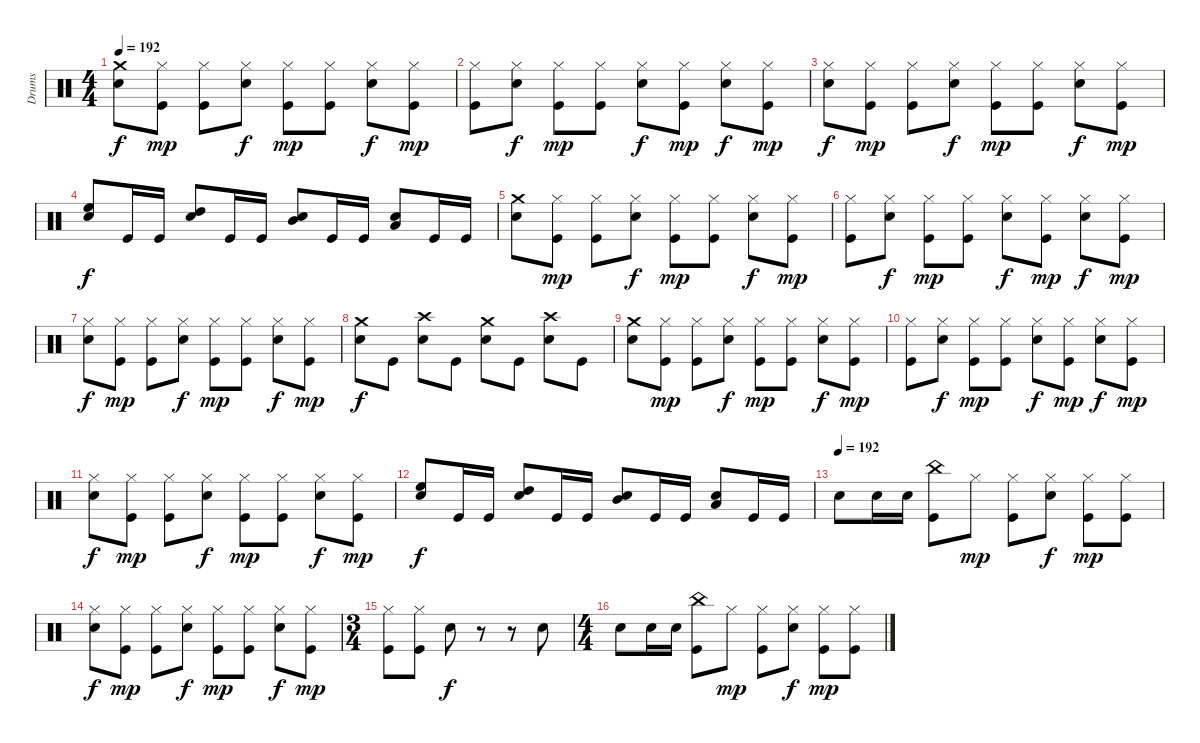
\track ("Drums" "Drums") {instrument percussion}
\staff {score}
\articulation defaults
\ts (4 4)
\tempo 192
\clef neutral
\ks c
("Crash medium (hit)" "Electric Snare (hit)").8{dy f} ("Hi-Hat (closed)" "Kick (hit)").8{dy mp} ("Hi-Hat (closed)" "Kick (hit)").8 ("Hi-Hat (closed)" "Electric Snare (hit)").8{dy f} ("Hi-Hat (closed)" "Kick (hit)").8{dy mp} ("Hi-Hat (closed)" "Kick (hit)").8 ("Hi-Hat (closed)" "Electric Snare (hit)").8{dy f} ("Hi-Hat (closed)" "Kick (hit)").8{dy mp} |
("Hi-Hat (closed)" "Kick (hit)").8 ("Hi-Hat (closed)" "Electric Snare (hit)").8{dy f} ("Hi-Hat (closed)" "Kick (hit)").8{dy mp} ("Hi-Hat (closed)" "Kick (hit)").8 ("Hi-Hat (closed)" "Electric Snare (hit)").8{dy f} ("Hi-Hat (closed)" "Kick (hit)").8{dy mp} ("Hi-Hat (closed)" "Electric Snare (hit)").8{dy f} ("Hi-Hat (closed)" "Kick (hit)").8{dy mp} |
("Hi-Hat (closed)" "Electric Snare (hit)").8{dy f} ("Hi-Hat (closed)" "Kick (hit)").8{dy mp} ("Hi-Hat (closed)" "Kick (hit)").8 ("Hi-Hat (closed)" "Electric Snare (hit)").8{dy f} ("Hi-Hat (closed)" "Kick (hit)").8{dy mp} ("Hi-Hat (closed)" "Kick (hit)").8 ("Hi-Hat (closed)" "Electric Snare (hit)").8{dy f} ("Hi-Hat (closed)" "Kick (hit)").8{dy mp} |
("High Floor Tom (hit)" "Electric Snare (hit)").8{dy f} "Kick (hit)".16 "Kick (hit)".16 ("High Tom (hit)" "Electric Snare (hit)").8 "Kick (hit)".16 "Kick (hit)".16 ("Electric Snare (hit)" "Mid Tom (hit)").8 "Kick (hit)".16 "Kick (hit)".16 ("Electric Snare (hit)" "Low Tom (hit)").8 "Kick (hit)".16 "Kick (hit)".16 |
("Crash medium (hit)" "Electric Snare (hit)").8 ("Hi-Hat (closed)" "Kick (hit)").8{dy mp} ("Hi-Hat (closed)" "Kick (hit)").8 ("Hi-Hat (closed)" "Electric Snare (hit)").8{dy f} ("Hi-Hat (closed)" "Kick (hit)").8{dy mp} ("Hi-Hat (closed)" "Kick (hit)").8 ("Hi-Hat (closed)" "Electric Snare (hit)").8{dy f} ("Hi-Hat (closed)" "Kick (hit)").8{dy mp} |
("Hi-Hat (closed)" "Kick (hit)").8 ("Hi-Hat (closed)" "Electric Snare (hit)").8{dy f} ("Hi-Hat (closed)" "Kick (hit)").8{dy mp} ("Hi-Hat (closed)" "Kick (hit)").8 ("Hi-Hat (closed)" "Electric Snare (hit)").8{dy f} ("Hi-Hat (closed)" "Kick (hit)").8{dy mp} ("Hi-Hat (closed)" "Electric Snare (hit)").8{dy f} ("Hi-Hat (closed)" "Kick (hit)").8{dy mp} |
("Hi-Hat (closed)" "Electric Snare (hit)").8{dy f} ("Hi-Hat (closed)" "Kick (hit)").8{dy mp} ("Hi-Hat (closed)" "Kick (hit)").8 ("Hi-Hat (closed)" "Electric Snare (hit)").8{dy f} ("Hi-Hat (closed)" "Kick (hit)").8{dy mp} ("Hi-Hat (closed)" "Kick (hit)").8 ("Hi-Hat (closed)" "Electric Snare (hit)").8{dy f} ("Hi-Hat (closed)" "Kick (hit)").8{dy mp} |
("Crash medium (hit)" "Electric Snare (hit)").8{dy f} "Kick (hit)".8 ("Crash high (hit)" "Electric Snare (hit)").8 "Kick (hit)".8 ("Crash medium (hit)" "Electric Snare (hit)").8 "Kick (hit)".8 ("Crash high (hit)" "Electric Snare (hit)").8 "Kick (hit)".8 |
("Crash medium (hit)" "Electric Snare (hit)").8 ("Hi-Hat (closed)" "Kick (hit)").8{dy mp} ("Hi-Hat (closed)" "Kick (hit)").8 ("Hi-Hat (closed)" "Electric Snare (hit)").8{dy f} ("Hi-Hat (closed)" "Kick (hit)").8{dy mp} ("Hi-Hat (closed)" "Kick (hit)").8 ("Hi-Hat (closed)" "Electric Snare (hit)").8{dy f} ("Hi-Hat (closed)" "Kick (hit)").8{dy mp} |
("Hi-Hat (closed)" "Kick (hit)").8 ("Hi-Hat (closed)" "Electric Snare (hit)").8{dy f} ("Hi-Hat (closed)" "Kick (hit)").8{dy mp} ("Hi-Hat (closed)" "Kick (hit)").8 ("Hi-Hat (closed)" "Electric Snare (hit)").8{dy f} ("Hi-Hat (closed)" "Kick (hit)").8{dy mp} ("Hi-Hat (closed)" "Electric Snare (hit)").8{dy f} ("Hi-Hat (closed)" "Kick (hit)").8{dy mp} |
("Hi-Hat (closed)" "Electric Snare (hit)").8{dy f} ("Hi-Hat (closed)" "Kick (hit)").8{dy mp} ("Hi-Hat (closed)" "Kick (hit)").8 ("Hi-Hat (closed)" "Electric Snare (hit)").8{dy f} ("Hi-Hat (closed)" "Kick (hit)").8{dy mp} ("Hi-Hat (closed)" "Kick (hit)").8 ("Hi-Hat (closed)" "Electric Snare (hit)").8{dy f} ("Hi-Hat (closed)" "Kick (hit)").8{dy mp} |
("High Floor Tom (hit)" "Electric Snare (hit)").8{dy f} "Kick (hit)".16 "Kick (hit)".16 ("High Tom (hit)" "Electric Snare (hit)").8 "Kick (hit)".16 "Kick (hit)".16 ("Electric Snare (hit)" "Mid Tom (hit)").8 "Kick (hit)".16 "Kick (hit)".16 ("Electric Snare (hit)" "Low Tom (hit)").8 "Kick (hit)".16 "Kick (hit)".16 |
\tempo (192)
"Electric Snare (hit)".8 "Electric Snare (hit)".16 "Electric Snare (hit)".16 ("China (hit)" "Kick (hit)").8 "Hi-Hat (closed)".8{dy mp} ("Hi-Hat (closed)" "Kick (hit)").8 ("Hi-Hat (closed)" "Electric Snare (hit)").8{dy f} ("Hi-Hat (closed)" "Kick (hit)").8{dy mp} ("Hi-Hat (closed)" "Kick (hit)").8 |
("Hi-Hat (closed)" "Electric Snare (hit)").8{dy f} ("Hi-Hat (closed)" "Kick (hit)").8{dy mp} ("Hi-Hat (closed)" "Kick (hit)").8 ("Hi-Hat (closed)" "Electric Snare (hit)").8{dy f} ("Hi-Hat (closed)" "Kick (hit)").8{dy mp} ("Hi-Hat (closed)" "Kick (hit)").8 ("Hi-Hat (closed)" "Electric Snare (hit)").8{dy f} ("Hi-Hat (closed)" "Kick (hit)").8{dy mp} |
\ts (3 4)
("Hi-Hat (closed)" "Kick (hit)").8 ("Hi-Hat (closed)" "Kick (hit)").8 "Electric Snare (hit)".8{dy f} r.8 r.8 "Electric Snare (hit)".8 |
\ts (4 4)
"Electric Snare (hit)".8 "Electric Snare (hit)".16 "Electric Snare (hit)".16 ("China (hit)" "Kick (hit)").8 "Hi-Hat (closed)".8{dy mp} ("Hi-Hat (closed)" "Kick (hit)").8 ("Hi-Hat (closed)" "Electric Snare (hit)").8{dy f} ("Hi-Hat (closed)" "Kick (hit)").8{dy mp} ("Hi-Hat (closed)" "Kick (hit)").8
